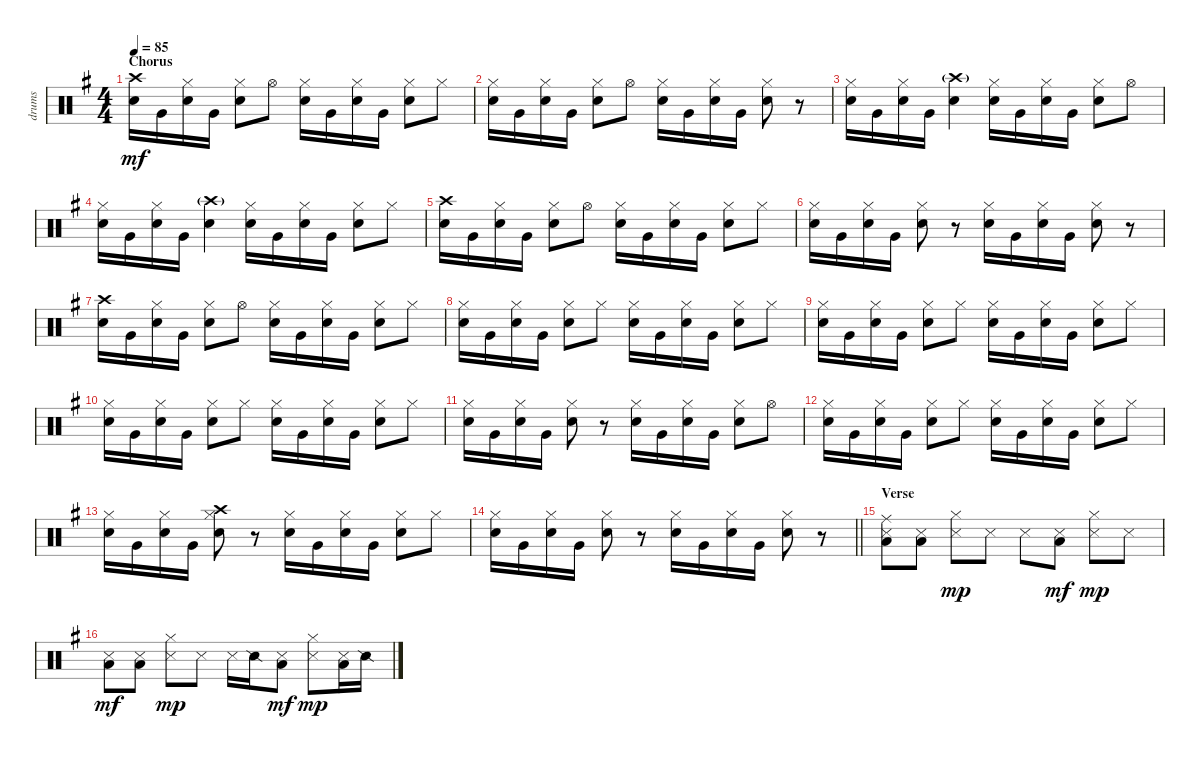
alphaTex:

\track ("drums" "drums") {instrument percussion}
\staff {score}
\articulation defaults
\ts (4 4)
\section ("" "Chorus")
\tempo 85
\clef neutral
\ks g
("Crash high (hit)" "Snare (hit) 2").16{dy mf} "Very Low Tom (hit)".16 ("Hi-Hat (closed)" "Snare (hit) 2").16 "Very Low Tom (hit)".16 ("Hi-Hat (closed)" "Snare (hit) 2").8 "Hi-Hat (open)".8 ("Hi-Hat (closed)" "Snare (hit) 2").16 "Very Low Tom (hit)".16 ("Hi-Hat (closed)" "Snare (hit) 2").16 "Very Low Tom (hit)".16 ("Hi-Hat (closed)" "Snare (hit) 2").8 "Hi-Hat (closed)".8 |
("Hi-Hat (closed)" "Snare (hit) 2").16 "Very Low Tom (hit)".16 ("Hi-Hat (closed)" "Snare (hit) 2").16 "Very Low Tom (hit)".16 ("Hi-Hat (closed)" "Snare (hit) 2").8 "Hi-Hat (open)".8 ("Hi-Hat (closed)" "Snare (hit) 2").16 "Very Low Tom (hit)".16 ("Hi-Hat (closed)" "Snare (hit) 2").16 "Very Low Tom (hit)".16 ("Hi-Hat (closed)" "Snare (hit) 2").8 r.8 |
("Hi-Hat (closed)" "Snare (hit) 2").16 "Very Low Tom (hit)".16 ("Hi-Hat (closed)" "Snare (hit) 2").16 "Very Low Tom (hit)".16 ("Crash high (hit)"{g} "Snare (hit) 2").4 ("Hi-Hat (closed)" "Snare (hit) 2").16 "Very Low Tom (hit)".16 ("Hi-Hat (closed)" "Snare (hit) 2").16 "Very Low Tom (hit)".16 ("Hi-Hat (closed)" "Snare (hit) 2").8 "Hi-Hat (open)".8 |
("Hi-Hat (closed)" "Snare (hit) 2").16 "Very Low Tom (hit)".16 ("Hi-Hat (closed)" "Snare (hit) 2").16 "Very Low Tom (hit)".16 ("Crash high (hit)"{g} "Snare (hit) 2").4 ("Hi-Hat (closed)" "Snare (hit) 2").16 "Very Low Tom (hit)".16 ("Hi-Hat (closed)" "Snare (hit) 2").16 "Very Low Tom (hit)".16 ("Hi-Hat (closed)" "Snare (hit) 2").8 "Hi-Hat (closed)".8 |
("Crash high (hit)" "Snare (hit) 2").16 "Very Low Tom (hit)".16 ("Hi-Hat (closed)" "Snare (hit) 2").16 "Very Low Tom (hit)".16 ("Hi-Hat (closed)" "Snare (hit) 2").8 "Hi-Hat (open)".8 ("Hi-Hat (closed)" "Snare (hit) 2").16 "Very Low Tom (hit)".16 ("Hi-Hat (closed)" "Snare (hit) 2").16 "Very Low Tom (hit)".16 ("Hi-Hat (closed)" "Snare (hit) 2").8 "Hi-Hat (closed)".8 |
("Hi-Hat (closed)" "Snare (hit) 2").16 "Very Low Tom (hit)".16 ("Hi-Hat (closed)" "Snare (hit) 2").16 "Very Low Tom (hit)".16 ("Hi-Hat (closed)" "Snare (hit) 2").8 r.8 ("Hi-Hat (closed)" "Snare (hit) 2").16 "Very Low Tom (hit)".16 ("Hi-Hat (closed)" "Snare (hit) 2").16 "Very Low Tom (hit)".16 ("Hi-Hat (closed)" "Snare (hit) 2").8 r.8 |
("Crash high (hit)" "Snare (hit) 2").16 "Very Low Tom (hit)".16 ("Hi-Hat (closed)" "Snare (hit) 2").16 "Very Low Tom (hit)".16 ("Hi-Hat (closed)" "Snare (hit) 2").8 "Hi-Hat (open)".8 ("Hi-Hat (closed)" "Snare (hit) 2").16 "Very Low Tom (hit)".16 ("Hi-Hat (closed)" "Snare (hit) 2").16 "Very Low Tom (hit)".16 ("Hi-Hat (closed)" "Snare (hit) 2").8 "Hi-Hat (closed)".8 |
("Hi-Hat (closed)" "Snare (hit) 2").16 "Very Low Tom (hit)".16 ("Hi-Hat (closed)" "Snare (hit) 2").16 "Very Low Tom (hit)".16 ("Hi-Hat (closed)" "Snare (hit) 2").8 "Hi-Hat (closed)".8 ("Hi-Hat (closed)" "Snare (hit) 2").16 "Very Low Tom (hit)".16 ("Hi-Hat (closed)" "Snare (hit) 2").16 "Very Low Tom (hit)".16 ("Hi-Hat (closed)" "Snare (hit) 2").8 "Hi-Hat (closed)".8 |
("Hi-Hat (closed)" "Snare (hit) 2").16 "Very Low Tom (hit)".16 ("Hi-Hat (closed)" "Snare (hit) 2").16 "Very Low Tom (hit)".16 ("Hi-Hat (closed)" "Snare (hit) 2").8 "Hi-Hat (closed)".8 ("Hi-Hat (closed)" "Snare (hit) 2").16 "Very Low Tom (hit)".16 ("Hi-Hat (closed)" "Snare (hit) 2").16 "Very Low Tom (hit)".16 ("Hi-Hat (closed)" "Snare (hit) 2").8 "Hi-Hat (closed)".8 |
("Hi-Hat (closed)" "Snare (hit) 2").16 "Very Low Tom (hit)".16 ("Hi-Hat (closed)" "Snare (hit) 2").16 "Very Low Tom (hit)".16 ("Hi-Hat (closed)" "Snare (hit) 2").8 "Hi-Hat (closed)".8 ("Hi-Hat (closed)" "Snare (hit) 2").16 "Very Low Tom (hit)".16 ("Hi-Hat (closed)" "Snare (hit) 2").16 "Very Low Tom (hit)".16 ("Hi-Hat (closed)" "Snare (hit) 2").8 "Hi-Hat (closed)".8 |
("Hi-Hat (closed)" "Snare (hit) 2").16 "Very Low Tom (hit)".16 ("Hi-Hat (closed)" "Snare (hit) 2").16 "Very Low Tom (hit)".16 ("Hi-Hat (closed)" "Snare (hit) 2").8 r.8 ("Hi-Hat (closed)" "Snare (hit) 2").16 "Very Low Tom (hit)".16 ("Hi-Hat (closed)" "Snare (hit) 2").16 "Very Low Tom (hit)".16 ("Hi-Hat (closed)" "Snare (hit) 2").8 "Hi-Hat (open)".8 |
("Hi-Hat (closed)" "Snare (hit) 2").16 "Very Low Tom (hit)".16 ("Hi-Hat (closed)" "Snare (hit) 2").16 "Very Low Tom (hit)".16 ("Hi-Hat (closed)" "Snare (hit) 2").8 "Hi-Hat (closed)".8 ("Hi-Hat (closed)" "Snare (hit) 2").16 "Very Low Tom (hit)".16 ("Hi-Hat (closed)" "Snare (hit) 2").16 "Very Low Tom (hit)".16 ("Hi-Hat (closed)" "Snare (hit) 2").8 "Hi-Hat (closed)".8 |
("Hi-Hat (closed)" "Snare (hit) 2").16 "Very Low Tom (hit)".16 ("Hi-Hat (closed)" "Snare (hit) 2").16 "Very Low Tom (hit)".16 ("Crash high (hit)" "Hi-Hat (closed)" "Snare (hit) 2").8 r.8 ("Hi-Hat (closed)" "Snare (hit) 2").16 "Very Low Tom (hit)".16 ("Hi-Hat (closed)" "Snare (hit) 2").16 "Very Low Tom (hit)".16 ("Hi-Hat (closed)" "Snare (hit) 2").8 "Hi-Hat (closed)".8 |
\barLineRight lightlight
("Hi-Hat (closed)" "Snare (hit) 2").16 "Very Low Tom (hit)".16 ("Hi-Hat (closed)" "Snare (hit) 2").16 "Very Low Tom (hit)".16 ("Hi-Hat (closed)" "Snare (hit) 2").8 r.8 ("Hi-Hat (closed)" "Snare (hit) 2").16 "Very Low Tom (hit)".16 ("Hi-Hat (closed)" "Snare (hit) 2").16 "Very Low Tom (hit)".16 ("Hi-Hat (closed)" "Snare (hit) 2").8 r.8 |
\section ("" "Verse")
("Ride (middle)" "Snare (side stick) 3" "Low Floor Tom (hit)").8 ("Snare (side stick) 3" "Low Floor Tom (hit)").8 ("Hi-Hat (closed)" "Snare (side stick) 3").8{dy mp} "Snare (side stick) 3".8 "Snare (side stick) 3".8 ("Snare (side stick) 3" "Low Floor Tom (hit)").8{dy mf} ("Hi-Hat (closed)" "Snare (side stick) 3").8{dy mp} "Snare (side stick) 3".8 |
("Snare (side stick) 3" "Low Floor Tom (hit)").8{dy mf} ("Snare (side stick) 3" "Low Floor Tom (hit)").8 ("Hi-Hat (closed)" "Snare (side stick) 3").8{dy mp} "Snare (side stick) 3".8 "Snare (side stick) 3".16 "Snare (side stick) 2".16 ("Snare (side stick) 3" "Low Floor Tom (hit)").8{dy mf} ("Hi-Hat (closed)" "Snare (side stick) 3").8{dy mp} ("Snare (side stick) 3" "Low Floor Tom (hit)").16 "Snare (side stick) 2".16
